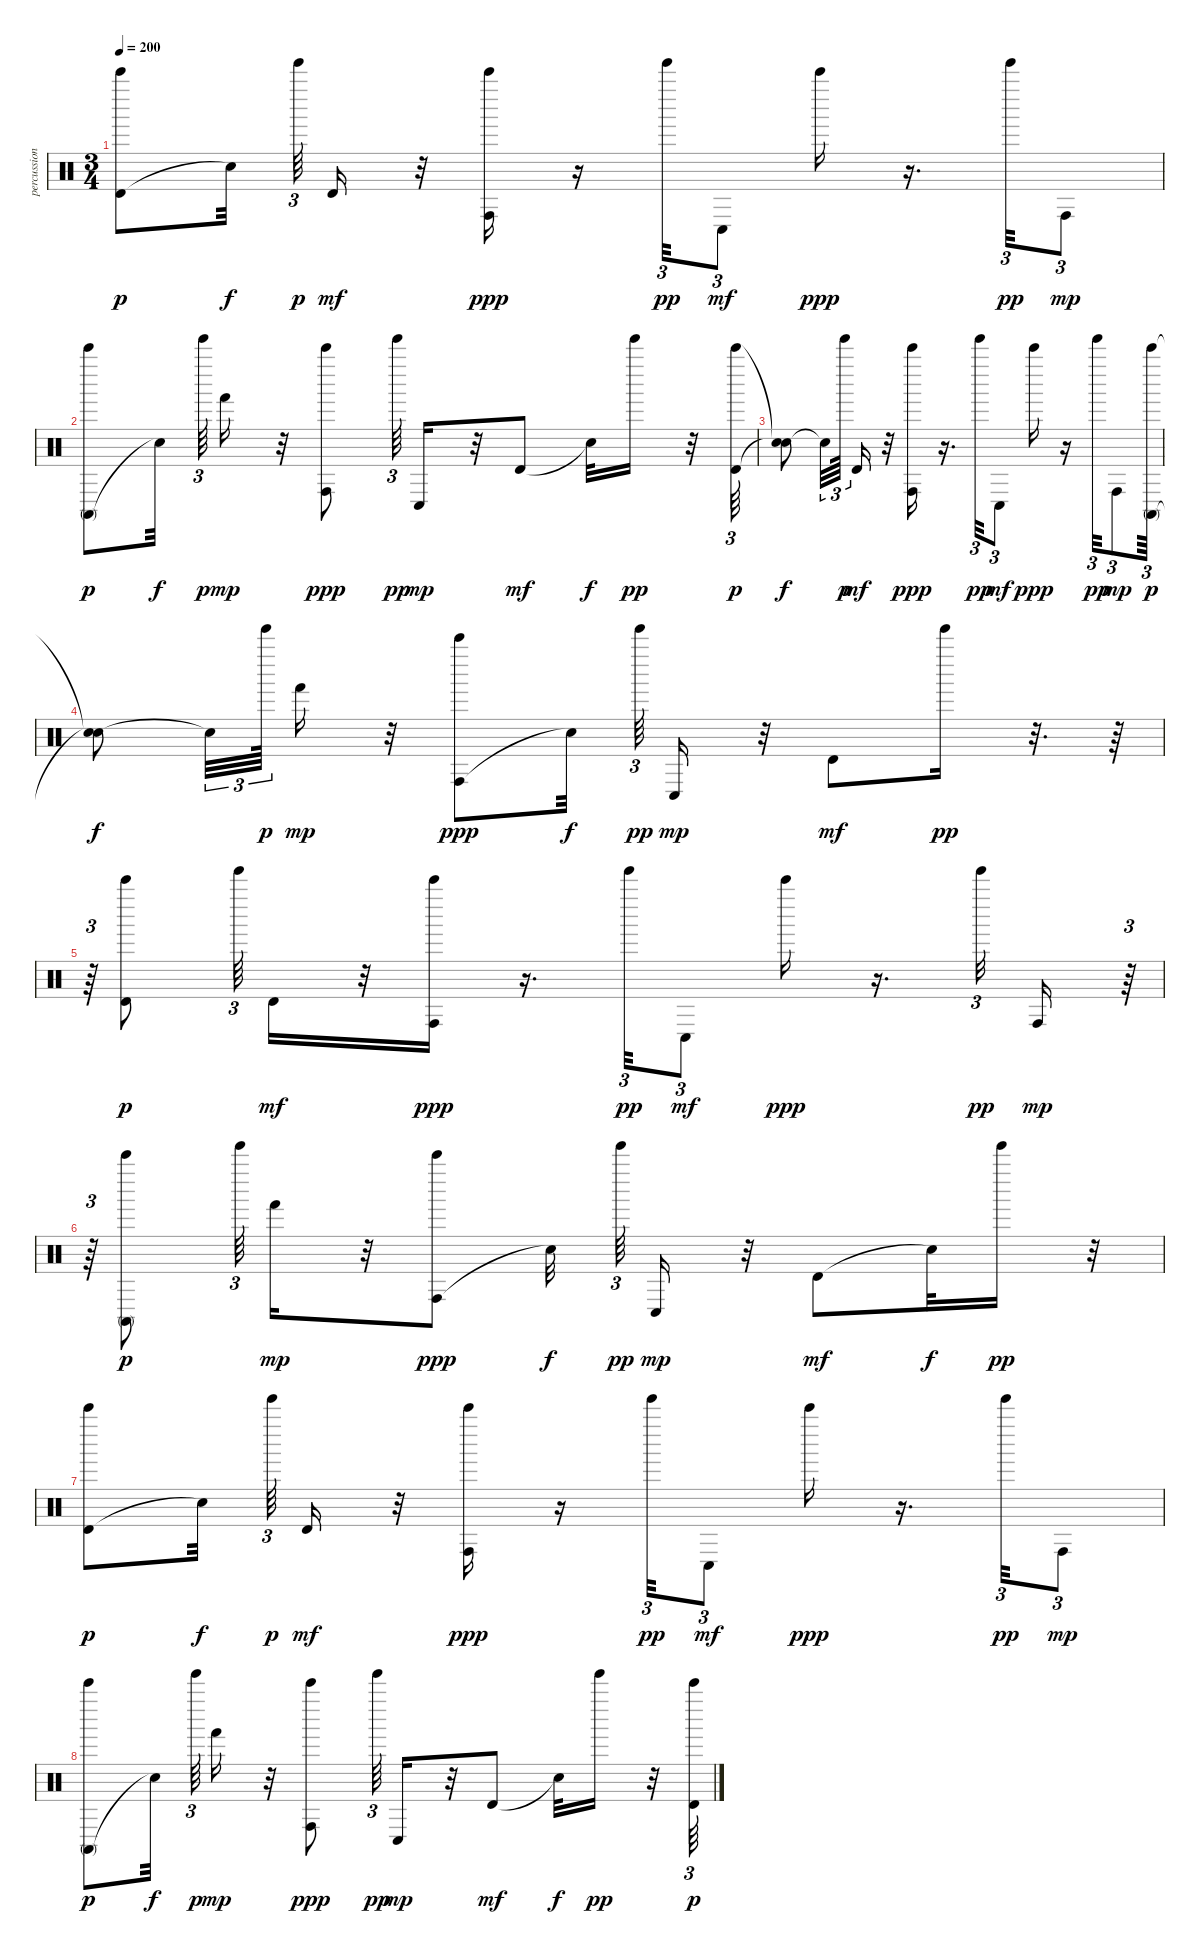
\track ("percussion" "percussion") {instrument percussion}
\staff {score}
\articulation defaults
\ts (3 4)
\tempo 200
\clef neutral
\ks c
("Timbale high (hit)" "Bell Tree (hit)").8{dy p} "Snare (hit)"{t}.32{dy f} "Tinkle Bell (hit)".64{tu (3 2) dy p} "Timbale high (hit)".16{dy mf} r.32 ("Conga high (hit)" "Bell Tree (hit)").16{dy ppp} r.16 "Tinkle Bell (hit)".32{tu (3 2) dy pp} "Conga low (hit)".8{tu (3 2) dy mf} "Bell Tree (hit)".16{dy ppp} r.16{d} "Tinkle Bell (hit)".32{tu (3 2) dy pp} "Conga high (hit)".8{tu (3 2) dy mp} |
("Conga high (mute)" "Bell Tree (hit)").8{dy p} "Snare (hit)"{t}.32{dy f} "Tinkle Bell (hit)".64{tu (3 2) dy p} "Hand (hit)".16{dy mp} r.32 ("Conga high (hit)" "Bell Tree (hit)").8{dy ppp} "Tinkle Bell (hit)".64{tu (3 2) dy pp} "Conga low (hit)".16{dy mp} r.32 "Timbale high (hit)".8{dy mf} "Snare (hit)"{t}.32{dy f} "Tinkle Bell (hit)".16{dy pp} r.32 ("Timbale high (hit)" "Bell Tree (hit)").64{tu (3 2) dy p} |
("Snare (hit)"{t} "Snare (hit)"{t}).8{dy f} "Snare (hit)"{t}.32{tu (3 2)} "Tinkle Bell (hit)".64{tu (3 2) dy p} "Timbale high (hit)".16{dy mf} r.32 ("Conga high (hit)" "Bell Tree (hit)").16{dy ppp} r.16{d} "Tinkle Bell (hit)".32{tu (3 2) dy pp} "Conga low (hit)".8{tu (3 2) dy mf} "Bell Tree (hit)".16{dy ppp} r.16 "Tinkle Bell (hit)".32{tu (3 2) dy pp} "Conga high (hit)".8{tu (3 2) dy mp} ("Conga high (mute)" "Bell Tree (hit)").64{tu (3 2) dy p} |
("Snare (hit)"{t} "Snare (hit)"{t}).8{dy f} "Snare (hit)"{t}.32{tu (3 2)} "Tinkle Bell (hit)".64{tu (3 2) dy p} "Hand (hit)".16{dy mp} r.32 ("Conga high (hit)" "Bell Tree (hit)").8{dy ppp} "Snare (hit)"{t}.32{dy f} "Tinkle Bell (hit)".64{tu (3 2) dy pp} "Conga low (hit)".16{dy mp} r.32 "Timbale high (hit)".8{dy mf} "Tinkle Bell (hit)".16{dy pp} r.32{d} r.64 |
r.64{tu (3 2)} ("Timbale high (hit)" "Bell Tree (hit)").8{dy p} "Tinkle Bell (hit)".64{tu (3 2)} "Timbale high (hit)".16{dy mf} r.32 ("Conga high (hit)" "Bell Tree (hit)").16{dy ppp} r.16{d} "Tinkle Bell (hit)".32{tu (3 2) dy pp} "Conga low (hit)".8{tu (3 2) dy mf} "Bell Tree (hit)".16{dy ppp} r.16{d} "Tinkle Bell (hit)".32{tu (3 2) dy pp} "Conga high (hit)".16{dy mp} r.64{tu (3 2)} |
r.64{tu (3 2)} ("Conga high (mute)" "Bell Tree (hit)").8{dy p} "Tinkle Bell (hit)".64{tu (3 2)} "Hand (hit)".16{dy mp} r.32 ("Conga high (hit)" "Bell Tree (hit)").8{dy ppp} "Snare (hit)"{t}.32{dy f} "Tinkle Bell (hit)".64{tu (3 2) dy pp} "Conga low (hit)".16{dy mp} r.32 "Timbale high (hit)".8{dy mf} "Snare (hit)"{t}.32{dy f} "Tinkle Bell (hit)".16{dy pp} r.32 |
("Timbale high (hit)" "Bell Tree (hit)").8{dy p} "Snare (hit)"{t}.32{dy f} "Tinkle Bell (hit)".64{tu (3 2) dy p} "Timbale high (hit)".16{dy mf} r.32 ("Conga high (hit)" "Bell Tree (hit)").16{dy ppp} r.16 "Tinkle Bell (hit)".32{tu (3 2) dy pp} "Conga low (hit)".8{tu (3 2) dy mf} "Bell Tree (hit)".16{dy ppp} r.16{d} "Tinkle Bell (hit)".32{tu (3 2) dy pp} "Conga high (hit)".8{tu (3 2) dy mp} |
("Conga high (mute)" "Bell Tree (hit)").8{dy p} "Snare (hit)"{t}.32{dy f} "Tinkle Bell (hit)".64{tu (3 2) dy p} "Hand (hit)".16{dy mp} r.32 ("Conga high (hit)" "Bell Tree (hit)").8{dy ppp} "Tinkle Bell (hit)".64{tu (3 2) dy pp} "Conga low (hit)".16{dy mp} r.32 "Timbale high (hit)".8{dy mf} "Snare (hit)"{t}.32{dy f} "Tinkle Bell (hit)".16{dy pp} r.32 ("Timbale high (hit)" "Bell Tree (hit)").64{tu (3 2) dy p}
